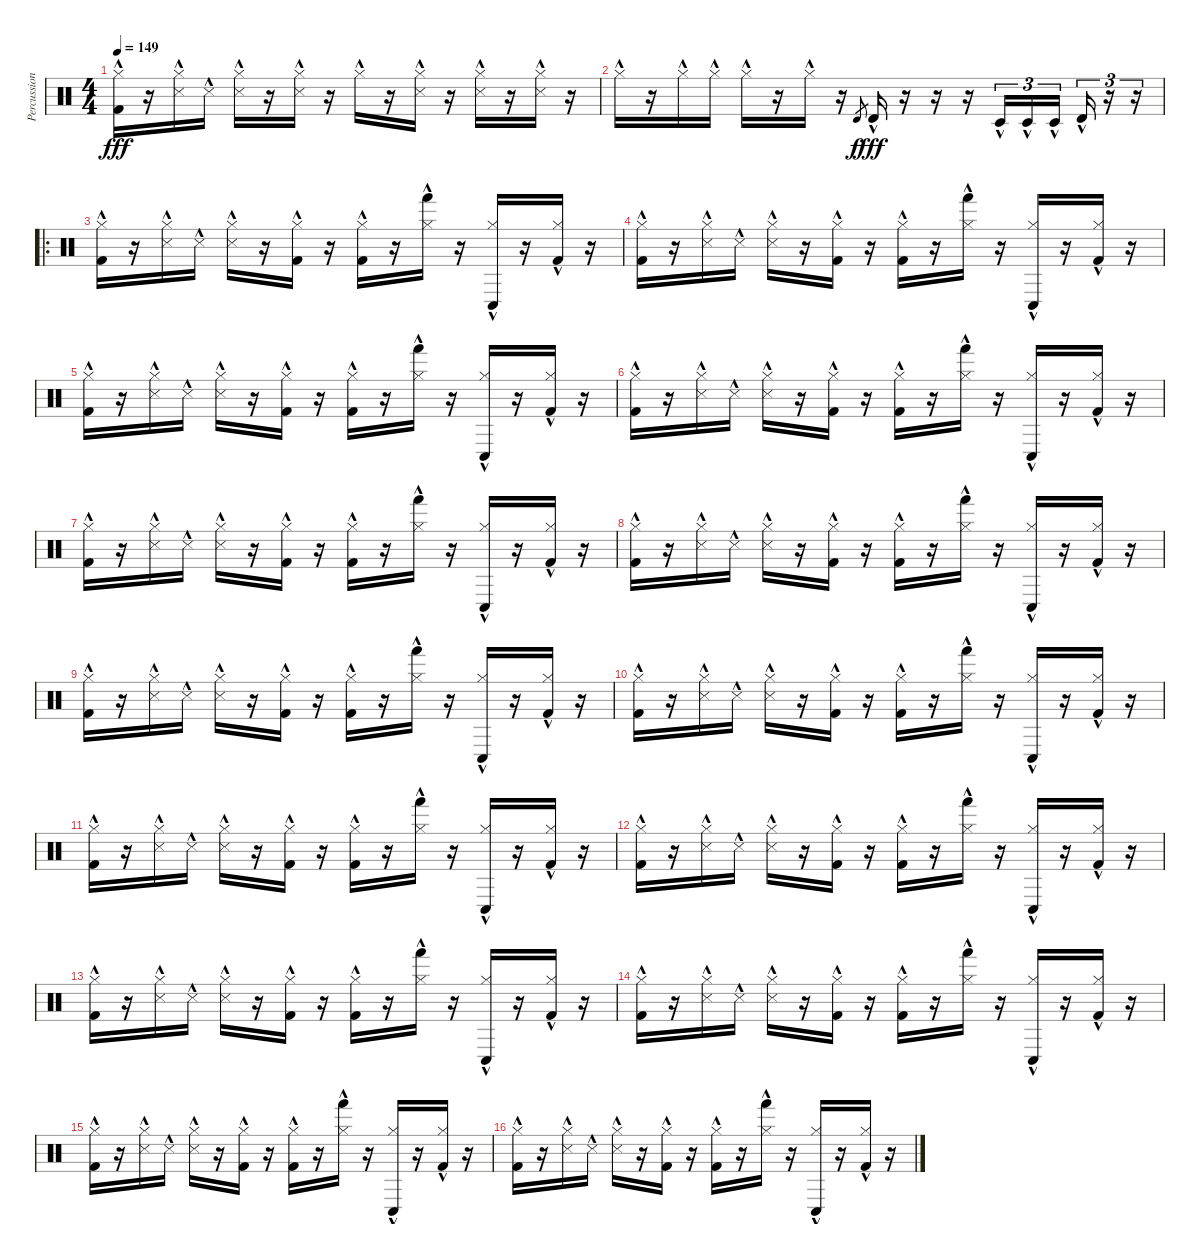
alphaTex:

\track ("Percussion" "Percussion") {instrument percussion}
\staff {score}
\articulation defaults
\ts (4 4)
\tempo 149
\clef neutral
\ks c
("Hi-Hat (closed)"{hac} "Kick (hit) 2"{hac}).16{dy fff} r.16 ("Hi-Hat (closed)"{hac} "Snare (side stick) 3"{hac}).16 "Snare (side stick) 3"{hac}.16 ("Hi-Hat (closed)"{hac} "Snare (side stick) 3"{hac}).16 r.16 ("Hi-Hat (closed)"{hac} "Snare (side stick) 3"{hac}).16 r.16 "Hi-Hat (closed)"{hac}.16 r.16 ("Hi-Hat (closed)"{hac} "Snare (side stick) 3"{hac}).16 r.16 ("Hi-Hat (closed)"{hac} "Snare (side stick) 3"{hac}).16 r.16 ("Hi-Hat (closed)"{hac} "Snare (side stick) 3"{hac}).16 r.16 |
"Hi-Hat (closed)"{hac}.16 r.16 "Hi-Hat (closed)"{hac}.16 "Hi-Hat (closed)"{hac}.16 "Hi-Hat (closed)"{hac}.16 r.16 "Hi-Hat (closed)"{hac}.16 r.16 "Timbale high (hit)".8{gr dy f} "Timbale high (hit)"{hac}.16{dy fff} r.16 r.16 r.16 "Timbale low (hit)"{hac}.16{tu (3 2)} "Timbale low (hit)"{hac}.16{tu (3 2)} "Timbale low (hit)"{hac}.16{tu (3 2) beam splitsecondary} "Timbale high (hit)"{hac}.16{tu (3 2)} r.16{tu (3 2)} r.16{tu (3 2)} |
\ro
("Hi-Hat (closed)"{hac} "Kick (hit) 2"{hac}).16 r.16 ("Hi-Hat (closed)"{hac} "Snare (side stick) 3"{hac}).16 "Snare (side stick) 3"{hac}.16 ("Hi-Hat (closed)"{hac} "Snare (side stick) 3"{hac}).16 r.16 ("Hi-Hat (closed)"{hac} "Kick (hit) 2"{hac}).16 r.16 ("Hi-Hat (closed)"{hac} "Kick (hit) 2"{hac}).16 r.16 ("Hi-Hat (closed)"{hac} "Hand (hit)"{hac}).16 r.16 ("Hi-Hat (closed)"{hac} "Conga low (hit)"{hac}).16 r.16 ("Hi-Hat (closed)"{hac} "Kick (hit) 2"{hac}).16 r.16 |
("Hi-Hat (closed)"{hac} "Kick (hit) 2"{hac}).16 r.16 ("Hi-Hat (closed)"{hac} "Snare (side stick) 3"{hac}).16 "Snare (side stick) 3"{hac}.16 ("Hi-Hat (closed)"{hac} "Snare (side stick) 3"{hac}).16 r.16 ("Hi-Hat (closed)"{hac} "Kick (hit) 2"{hac}).16 r.16 ("Hi-Hat (closed)"{hac} "Kick (hit) 2"{hac}).16 r.16 ("Hi-Hat (closed)"{hac} "Hand (hit)"{hac}).16 r.16 ("Hi-Hat (closed)"{hac} "Conga low (hit)"{hac}).16 r.16 ("Hi-Hat (closed)"{hac} "Kick (hit) 2"{hac}).16 r.16 |
("Hi-Hat (closed)"{hac} "Kick (hit) 2"{hac}).16 r.16 ("Hi-Hat (closed)"{hac} "Snare (side stick) 3"{hac}).16 "Snare (side stick) 3"{hac}.16 ("Hi-Hat (closed)"{hac} "Snare (side stick) 3"{hac}).16 r.16 ("Hi-Hat (closed)"{hac} "Kick (hit) 2"{hac}).16 r.16 ("Hi-Hat (closed)"{hac} "Kick (hit) 2"{hac}).16 r.16 ("Hi-Hat (closed)"{hac} "Hand (hit)"{hac}).16 r.16 ("Hi-Hat (closed)"{hac} "Conga low (hit)"{hac}).16 r.16 ("Hi-Hat (closed)"{hac} "Kick (hit) 2"{hac}).16 r.16 |
("Hi-Hat (closed)"{hac} "Kick (hit) 2"{hac}).16 r.16 ("Hi-Hat (closed)"{hac} "Snare (side stick) 3"{hac}).16 "Snare (side stick) 3"{hac}.16 ("Hi-Hat (closed)"{hac} "Snare (side stick) 3"{hac}).16 r.16 ("Hi-Hat (closed)"{hac} "Kick (hit) 2"{hac}).16 r.16 ("Hi-Hat (closed)"{hac} "Kick (hit) 2"{hac}).16 r.16 ("Hi-Hat (closed)"{hac} "Hand (hit)"{hac}).16 r.16 ("Hi-Hat (closed)"{hac} "Conga low (hit)"{hac}).16 r.16 ("Hi-Hat (closed)"{hac} "Kick (hit) 2"{hac}).16 r.16 |
("Hi-Hat (closed)"{hac} "Kick (hit) 2"{hac}).16 r.16 ("Hi-Hat (closed)"{hac} "Snare (side stick) 3"{hac}).16 "Snare (side stick) 3"{hac}.16 ("Hi-Hat (closed)"{hac} "Snare (side stick) 3"{hac}).16 r.16 ("Hi-Hat (closed)"{hac} "Kick (hit) 2"{hac}).16 r.16 ("Hi-Hat (closed)"{hac} "Kick (hit) 2"{hac}).16 r.16 ("Hi-Hat (closed)"{hac} "Hand (hit)"{hac}).16 r.16 ("Hi-Hat (closed)"{hac} "Conga low (hit)"{hac}).16 r.16 ("Hi-Hat (closed)"{hac} "Kick (hit) 2"{hac}).16 r.16 |
("Hi-Hat (closed)"{hac} "Kick (hit) 2"{hac}).16 r.16 ("Hi-Hat (closed)"{hac} "Snare (side stick) 3"{hac}).16 "Snare (side stick) 3"{hac}.16 ("Hi-Hat (closed)"{hac} "Snare (side stick) 3"{hac}).16 r.16 ("Hi-Hat (closed)"{hac} "Kick (hit) 2"{hac}).16 r.16 ("Hi-Hat (closed)"{hac} "Kick (hit) 2"{hac}).16 r.16 ("Hi-Hat (closed)"{hac} "Hand (hit)"{hac}).16 r.16 ("Hi-Hat (closed)"{hac} "Conga low (hit)"{hac}).16 r.16 ("Hi-Hat (closed)"{hac} "Kick (hit) 2"{hac}).16 r.16 |
("Hi-Hat (closed)"{hac} "Kick (hit) 2"{hac}).16 r.16 ("Hi-Hat (closed)"{hac} "Snare (side stick) 3"{hac}).16 "Snare (side stick) 3"{hac}.16 ("Hi-Hat (closed)"{hac} "Snare (side stick) 3"{hac}).16 r.16 ("Hi-Hat (closed)"{hac} "Kick (hit) 2"{hac}).16 r.16 ("Hi-Hat (closed)"{hac} "Kick (hit) 2"{hac}).16 r.16 ("Hi-Hat (closed)"{hac} "Hand (hit)"{hac}).16 r.16 ("Hi-Hat (closed)"{hac} "Conga low (hit)"{hac}).16 r.16 ("Hi-Hat (closed)"{hac} "Kick (hit) 2"{hac}).16 r.16 |
("Hi-Hat (closed)"{hac} "Kick (hit) 2"{hac}).16 r.16 ("Hi-Hat (closed)"{hac} "Snare (side stick) 3"{hac}).16 "Snare (side stick) 3"{hac}.16 ("Hi-Hat (closed)"{hac} "Snare (side stick) 3"{hac}).16 r.16 ("Hi-Hat (closed)"{hac} "Kick (hit) 2"{hac}).16 r.16 ("Hi-Hat (closed)"{hac} "Kick (hit) 2"{hac}).16 r.16 ("Hi-Hat (closed)"{hac} "Hand (hit)"{hac}).16 r.16 ("Hi-Hat (closed)"{hac} "Conga low (hit)"{hac}).16 r.16 ("Hi-Hat (closed)"{hac} "Kick (hit) 2"{hac}).16 r.16 |
("Hi-Hat (closed)"{hac} "Kick (hit) 2"{hac}).16 r.16 ("Hi-Hat (closed)"{hac} "Snare (side stick) 3"{hac}).16 "Snare (side stick) 3"{hac}.16 ("Hi-Hat (closed)"{hac} "Snare (side stick) 3"{hac}).16 r.16 ("Hi-Hat (closed)"{hac} "Kick (hit) 2"{hac}).16 r.16 ("Hi-Hat (closed)"{hac} "Kick (hit) 2"{hac}).16 r.16 ("Hi-Hat (closed)"{hac} "Hand (hit)"{hac}).16 r.16 ("Hi-Hat (closed)"{hac} "Conga low (hit)"{hac}).16 r.16 ("Hi-Hat (closed)"{hac} "Kick (hit) 2"{hac}).16 r.16 |
("Hi-Hat (closed)"{hac} "Kick (hit) 2"{hac}).16 r.16 ("Hi-Hat (closed)"{hac} "Snare (side stick) 3"{hac}).16 "Snare (side stick) 3"{hac}.16 ("Hi-Hat (closed)"{hac} "Snare (side stick) 3"{hac}).16 r.16 ("Hi-Hat (closed)"{hac} "Kick (hit) 2"{hac}).16 r.16 ("Hi-Hat (closed)"{hac} "Kick (hit) 2"{hac}).16 r.16 ("Hi-Hat (closed)"{hac} "Hand (hit)"{hac}).16 r.16 ("Hi-Hat (closed)"{hac} "Conga low (hit)"{hac}).16 r.16 ("Hi-Hat (closed)"{hac} "Kick (hit) 2"{hac}).16 r.16 |
("Hi-Hat (closed)"{hac} "Kick (hit) 2"{hac}).16 r.16 ("Hi-Hat (closed)"{hac} "Snare (side stick) 3"{hac}).16 "Snare (side stick) 3"{hac}.16 ("Hi-Hat (closed)"{hac} "Snare (side stick) 3"{hac}).16 r.16 ("Hi-Hat (closed)"{hac} "Kick (hit) 2"{hac}).16 r.16 ("Hi-Hat (closed)"{hac} "Kick (hit) 2"{hac}).16 r.16 ("Hi-Hat (closed)"{hac} "Hand (hit)"{hac}).16 r.16 ("Hi-Hat (closed)"{hac} "Conga low (hit)"{hac}).16 r.16 ("Hi-Hat (closed)"{hac} "Kick (hit) 2"{hac}).16 r.16 |
("Hi-Hat (closed)"{hac} "Kick (hit) 2"{hac}).16 r.16 ("Hi-Hat (closed)"{hac} "Snare (side stick) 3"{hac}).16 "Snare (side stick) 3"{hac}.16 ("Hi-Hat (closed)"{hac} "Snare (side stick) 3"{hac}).16 r.16 ("Hi-Hat (closed)"{hac} "Kick (hit) 2"{hac}).16 r.16 ("Hi-Hat (closed)"{hac} "Kick (hit) 2"{hac}).16 r.16 ("Hi-Hat (closed)"{hac} "Hand (hit)"{hac}).16 r.16 ("Hi-Hat (closed)"{hac} "Conga low (hit)"{hac}).16 r.16 ("Hi-Hat (closed)"{hac} "Kick (hit) 2"{hac}).16 r.16 |
("Hi-Hat (closed)"{hac} "Kick (hit) 2"{hac}).16 r.16 ("Hi-Hat (closed)"{hac} "Snare (side stick) 3"{hac}).16 "Snare (side stick) 3"{hac}.16 ("Hi-Hat (closed)"{hac} "Snare (side stick) 3"{hac}).16 r.16 ("Hi-Hat (closed)"{hac} "Kick (hit) 2"{hac}).16 r.16 ("Hi-Hat (closed)"{hac} "Kick (hit) 2"{hac}).16 r.16 ("Hi-Hat (closed)"{hac} "Hand (hit)"{hac}).16 r.16 ("Hi-Hat (closed)"{hac} "Conga low (hit)"{hac}).16 r.16 ("Hi-Hat (closed)"{hac} "Kick (hit) 2"{hac}).16 r.16 |
("Hi-Hat (closed)"{hac} "Kick (hit) 2"{hac}).16 r.16 ("Hi-Hat (closed)"{hac} "Snare (side stick) 3"{hac}).16 "Snare (side stick) 3"{hac}.16 ("Hi-Hat (closed)"{hac} "Snare (side stick) 3"{hac}).16 r.16 ("Hi-Hat (closed)"{hac} "Kick (hit) 2"{hac}).16 r.16 ("Hi-Hat (closed)"{hac} "Kick (hit) 2"{hac}).16 r.16 ("Hi-Hat (closed)"{hac} "Hand (hit)"{hac}).16 r.16 ("Hi-Hat (closed)"{hac} "Conga low (hit)"{hac}).16 r.16 ("Hi-Hat (closed)"{hac} "Kick (hit) 2"{hac}).16 r.16
